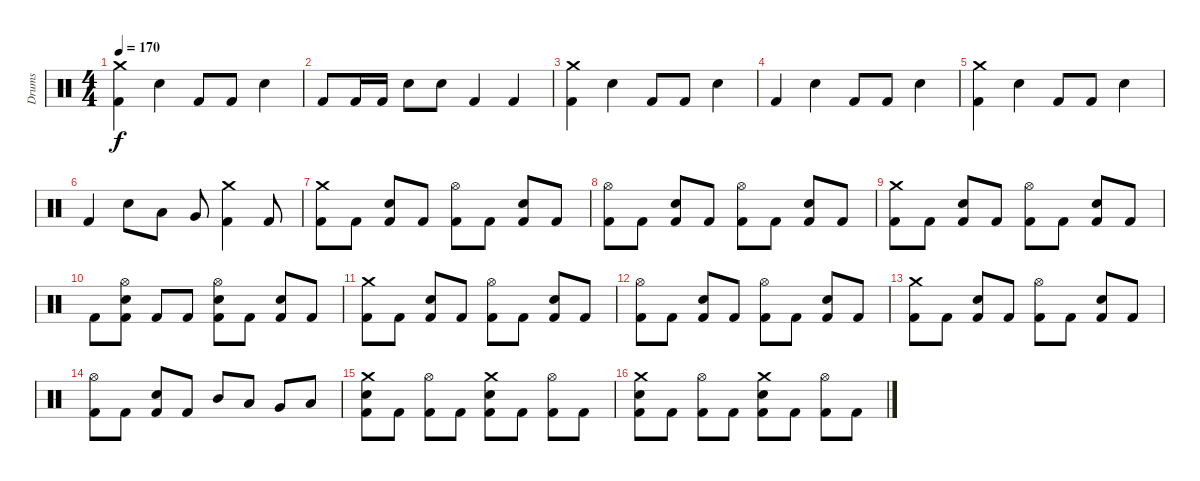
\track ("Drums" "Drums") {instrument percussion}
\staff {score}
\articulation defaults
\ts (4 4)
\tempo 170
\clef neutral
\ks c
("Crash medium (hit)" "Kick (hit) 2").4{dy f} "Snare (hit) 2".4 "Kick (hit) 2".8 "Kick (hit) 2".8 "Snare (hit) 2".4 |
"Kick (hit) 2".8 "Kick (hit) 2".16 "Kick (hit) 2".16 "Snare (hit) 2".8 "Snare (hit) 2".8 "Kick (hit) 2".4 "Kick (hit) 2".4 |
("Crash medium (hit)" "Kick (hit) 2").4 "Snare (hit) 2".4 "Kick (hit) 2".8 "Kick (hit) 2".8 "Snare (hit) 2".4 |
"Kick (hit) 2".4 "Snare (hit) 2".4 "Kick (hit) 2".8 "Kick (hit) 2".8 "Snare (hit) 2".4 |
("Crash medium (hit)" "Kick (hit) 2").4 "Snare (hit) 2".4 "Kick (hit) 2".8 "Kick (hit) 2".8 "Snare (hit) 2".4 |
"Kick (hit) 2".4 "Snare (hit) 2".8 "Low Tom (hit)".8 "Very Low Tom (hit)".8 ("Crash medium (hit)" "Kick (hit) 2").4 "Kick (hit) 2".8 |
("Crash medium (hit)" "Kick (hit) 2").8 "Kick (hit) 2".8 ("Snare (hit) 2" "Kick (hit) 2").8 "Kick (hit) 2".8 ("Hi-Hat (open)" "Kick (hit) 2").8 "Kick (hit) 2".8 ("Snare (hit) 2" "Kick (hit) 2").8 "Kick (hit) 2".8 |
("Hi-Hat (open)" "Kick (hit) 2").8 "Kick (hit) 2".8 ("Snare (hit) 2" "Kick (hit) 2").8 "Kick (hit) 2".8 ("Hi-Hat (open)" "Kick (hit) 2").8 "Kick (hit) 2".8 ("Snare (hit) 2" "Kick (hit) 2").8 "Kick (hit) 2".8 |
("Crash medium (hit)" "Kick (hit) 2").8 "Kick (hit) 2".8 ("Snare (hit) 2" "Kick (hit) 2").8 "Kick (hit) 2".8 ("Hi-Hat (open)" "Kick (hit) 2").8 "Kick (hit) 2".8 ("Snare (hit) 2" "Kick (hit) 2").8 "Kick (hit) 2".8 |
"Kick (hit) 2".8 ("Snare (hit) 2" "Hi-Hat (open)" "Kick (hit) 2").8 "Kick (hit) 2".8 "Kick (hit) 2".8 ("Snare (hit) 2" "Hi-Hat (open)" "Kick (hit) 2").8 "Kick (hit) 2".8 ("Snare (hit) 2" "Kick (hit) 2").8 "Kick (hit) 2".8 |
("Crash medium (hit)" "Kick (hit) 2").8 "Kick (hit) 2".8 ("Snare (hit) 2" "Kick (hit) 2").8 "Kick (hit) 2".8 ("Hi-Hat (open)" "Kick (hit) 2").8 "Kick (hit) 2".8 ("Snare (hit) 2" "Kick (hit) 2").8 "Kick (hit) 2".8 |
("Hi-Hat (open)" "Kick (hit) 2").8 "Kick (hit) 2".8 ("Snare (hit) 2" "Kick (hit) 2").8 "Kick (hit) 2".8 ("Hi-Hat (open)" "Kick (hit) 2").8 "Kick (hit) 2".8 ("Snare (hit) 2" "Kick (hit) 2").8 "Kick (hit) 2".8 |
("Crash medium (hit)" "Kick (hit) 2").8 "Kick (hit) 2".8 ("Snare (hit) 2" "Kick (hit) 2").8 "Kick (hit) 2".8 ("Hi-Hat (open)" "Kick (hit) 2").8 "Kick (hit) 2".8 ("Snare (hit) 2" "Kick (hit) 2").8 "Kick (hit) 2".8 |
("Hi-Hat (open)" "Kick (hit) 2").8 "Kick (hit) 2".8 ("Snare (hit) 2" "Kick (hit) 2").8 "Kick (hit) 2".8 "Mid Tom (hit)".8 "Low Tom (hit)".8 "Very Low Tom (hit)".8 "Low Floor Tom (hit)".8 |
("Snare (hit) 2" "Crash medium (hit)" "Kick (hit) 2").8 "Kick (hit) 2".8 ("Hi-Hat (open)" "Kick (hit) 2").8 "Kick (hit) 2".8 ("Snare (hit) 2" "Crash medium (hit)" "Kick (hit) 2").8 "Kick (hit) 2".8 ("Hi-Hat (open)" "Kick (hit) 2").8 "Kick (hit) 2".8 |
("Snare (hit) 2" "Crash medium (hit)" "Kick (hit) 2").8 "Kick (hit) 2".8 ("Hi-Hat (open)" "Kick (hit) 2").8 "Kick (hit) 2".8 ("Snare (hit) 2" "Crash medium (hit)" "Kick (hit) 2").8 "Kick (hit) 2".8 ("Hi-Hat (open)" "Kick (hit) 2").8 "Kick (hit) 2".8
